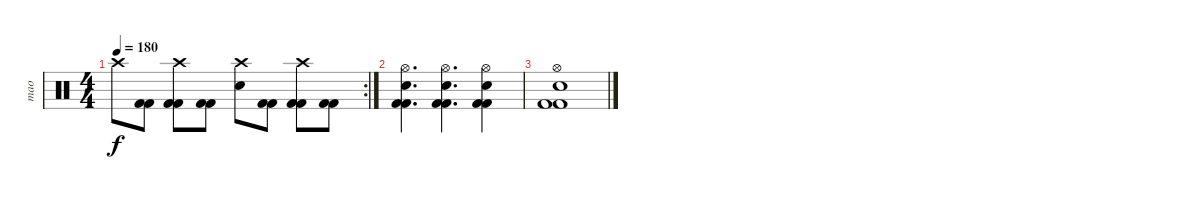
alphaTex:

\track ("mao" "mao") {instrument percussion}
\staff {score}
\articulation defaults
\rc 2
\ts (4 4)
\tempo 180
\clef neutral
\ks c "Crash high (hit)".8{dy f}
("Kick (hit) 2" "Kick (hit) 2").8 ("Crash high (hit)" "Kick (hit) 2" "Kick (hit) 2").8 ("Kick (hit) 2" "Kick (hit) 2").8 ("Crash high (hit)" "Electric Snare (hit)").8 ("Kick (hit) 2" "Kick (hit) 2").8 ("Crash high (hit)" "Kick (hit) 2" "Kick (hit) 2").8 ("Kick (hit) 2" "Kick (hit) 2").8 |
("Hi-Hat (open)" "Electric Snare (hit)" "Kick (hit) 2" "Kick (hit) 2").4{d} ("Hi-Hat (open)" "Electric Snare (hit)" "Kick (hit) 2" "Kick (hit) 2").4{d} ("Hi-Hat (open)" "Electric Snare (hit)" "Kick (hit) 2" "Kick (hit) 2").4 |
("Hi-Hat (open)" "Electric Snare (hit)" "Kick (hit) 2" "Kick (hit) 2").1
